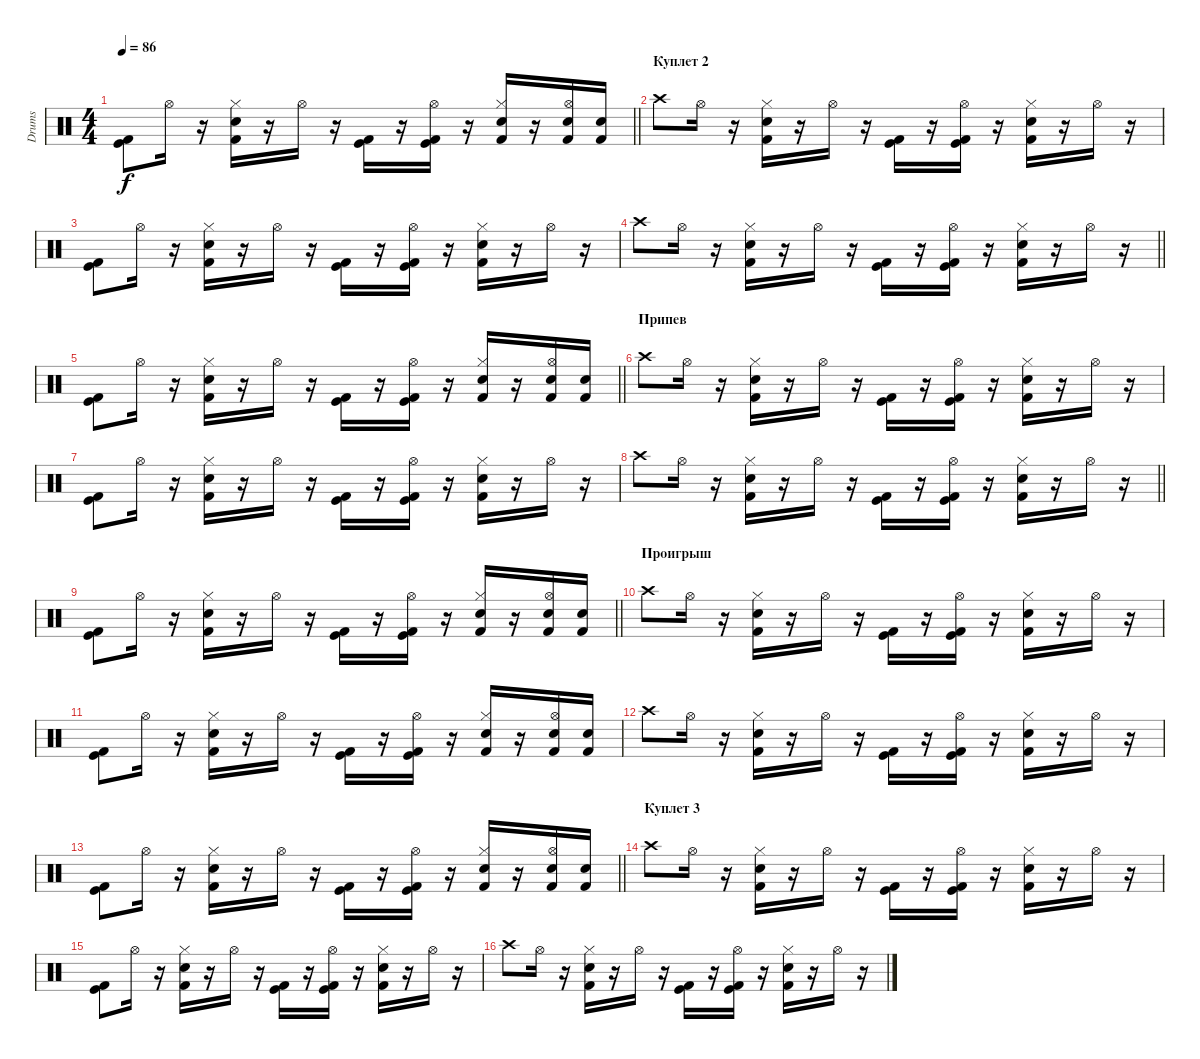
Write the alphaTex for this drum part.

\track ("Drums" "Drums") {instrument percussion}
\staff {score}
\articulation defaults
\ts (4 4)
\tempo 86
\clef neutral
\barLineRight lightlight
\ks c
("Kick (hit) 2" "Kick (hit)").8{dy f} "Hi-Hat (open)".16 r.16 ("Hi-Hat (closed)" "Snare (hit) 2" "Kick (hit) 2").16 r.16 "Hi-Hat (open)".16 r.16 ("Kick (hit) 2" "Kick (hit)").16 r.16 ("Kick (hit) 2" "Kick (hit)" "Hi-Hat (open)").16 r.16 ("Hi-Hat (closed)" "Snare (hit) 2" "Kick (hit) 2").16 r.16 ("Kick (hit) 2" "Electric Snare (hit)" "Hi-Hat (open)").16 ("Kick (hit) 2" "Electric Snare (hit)").16 |
\section ("" "Куплет 2")
"Crash high (hit)".8 "Hi-Hat (open)".16 r.16 ("Hi-Hat (closed)" "Snare (hit) 2" "Kick (hit) 2").16 r.16 "Hi-Hat (open)".16 r.16 ("Kick (hit) 2" "Kick (hit)").16 r.16 ("Kick (hit) 2" "Kick (hit)" "Hi-Hat (open)").16 r.16 ("Hi-Hat (closed)" "Snare (hit) 2" "Kick (hit) 2").16 r.16 "Hi-Hat (open)".16 r.16 |
("Kick (hit)" "Kick (hit) 2").8 "Hi-Hat (open)".16 r.16 ("Hi-Hat (closed)" "Snare (hit) 2" "Kick (hit) 2").16 r.16 "Hi-Hat (open)".16 r.16 ("Kick (hit) 2" "Kick (hit)").16 r.16 ("Kick (hit) 2" "Kick (hit)" "Hi-Hat (open)").16 r.16 ("Hi-Hat (closed)" "Snare (hit) 2" "Kick (hit) 2").16 r.16 "Hi-Hat (open)".16 r.16 |
\barLineRight lightlight "Crash high (hit)".8 "Hi-Hat (open)".16
r.16 ("Hi-Hat (closed)" "Snare (hit) 2" "Kick (hit) 2").16 r.16 "Hi-Hat (open)".16 r.16 ("Kick (hit) 2" "Kick (hit)").16 r.16 ("Kick (hit) 2" "Kick (hit)" "Hi-Hat (open)").16 r.16 ("Hi-Hat (closed)" "Snare (hit) 2" "Kick (hit) 2").16 r.16 "Hi-Hat (open)".16 r.16 |
\barLineRight lightlight
("Kick (hit) 2" "Kick (hit)").8 "Hi-Hat (open)".16 r.16 ("Hi-Hat (closed)" "Snare (hit) 2" "Kick (hit) 2").16 r.16 "Hi-Hat (open)".16 r.16 ("Kick (hit) 2" "Kick (hit)").16 r.16 ("Kick (hit) 2" "Kick (hit)" "Hi-Hat (open)").16 r.16 ("Hi-Hat (closed)" "Snare (hit) 2" "Kick (hit) 2").16 r.16 ("Kick (hit) 2" "Electric Snare (hit)" "Hi-Hat (open)").16 ("Kick (hit) 2" "Electric Snare (hit)").16 |
\section ("" "Припев")
"Crash high (hit)".8 "Hi-Hat (open)".16 r.16 ("Hi-Hat (closed)" "Snare (hit) 2" "Kick (hit) 2").16 r.16 "Hi-Hat (open)".16 r.16 ("Kick (hit) 2" "Kick (hit)").16 r.16 ("Kick (hit) 2" "Kick (hit)" "Hi-Hat (open)").16 r.16 ("Hi-Hat (closed)" "Snare (hit) 2" "Kick (hit) 2").16 r.16 "Hi-Hat (open)".16 r.16 |
("Kick (hit)" "Kick (hit) 2").8 "Hi-Hat (open)".16 r.16 ("Hi-Hat (closed)" "Snare (hit) 2" "Kick (hit) 2").16 r.16 "Hi-Hat (open)".16 r.16 ("Kick (hit) 2" "Kick (hit)").16 r.16 ("Kick (hit) 2" "Kick (hit)" "Hi-Hat (open)").16 r.16 ("Hi-Hat (closed)" "Snare (hit) 2" "Kick (hit) 2").16 r.16 "Hi-Hat (open)".16 r.16 |
\barLineRight lightlight "Crash high (hit)".8 "Hi-Hat (open)".16
r.16 ("Hi-Hat (closed)" "Snare (hit) 2" "Kick (hit) 2").16 r.16 "Hi-Hat (open)".16 r.16 ("Kick (hit) 2" "Kick (hit)").16 r.16 ("Kick (hit) 2" "Kick (hit)" "Hi-Hat (open)").16 r.16 ("Hi-Hat (closed)" "Snare (hit) 2" "Kick (hit) 2").16 r.16 "Hi-Hat (open)".16 r.16 |
\barLineRight lightlight
("Kick (hit) 2" "Kick (hit)").8 "Hi-Hat (open)".16 r.16 ("Hi-Hat (closed)" "Snare (hit) 2" "Kick (hit) 2").16 r.16 "Hi-Hat (open)".16 r.16 ("Kick (hit) 2" "Kick (hit)").16 r.16 ("Kick (hit) 2" "Kick (hit)" "Hi-Hat (open)").16 r.16 ("Hi-Hat (closed)" "Snare (hit) 2" "Kick (hit) 2").16 r.16 ("Kick (hit) 2" "Electric Snare (hit)" "Hi-Hat (open)").16 ("Kick (hit) 2" "Electric Snare (hit)").16 |
\section ("" "Проигрыш")
"Crash high (hit)".8 "Hi-Hat (open)".16 r.16 ("Hi-Hat (closed)" "Snare (hit) 2" "Kick (hit) 2").16 r.16 "Hi-Hat (open)".16 r.16 ("Kick (hit) 2" "Kick (hit)").16 r.16 ("Kick (hit) 2" "Kick (hit)" "Hi-Hat (open)").16 r.16 ("Hi-Hat (closed)" "Snare (hit) 2" "Kick (hit) 2").16 r.16 "Hi-Hat (open)".16 r.16 |
("Kick (hit) 2" "Kick (hit)").8 "Hi-Hat (open)".16 r.16 ("Hi-Hat (closed)" "Snare (hit) 2" "Kick (hit) 2").16 r.16 "Hi-Hat (open)".16 r.16 ("Kick (hit) 2" "Kick (hit)").16 r.16 ("Kick (hit) 2" "Kick (hit)" "Hi-Hat (open)").16 r.16 ("Hi-Hat (closed)" "Snare (hit) 2" "Kick (hit) 2").16 r.16 ("Kick (hit) 2" "Electric Snare (hit)" "Hi-Hat (open)").16 ("Kick (hit) 2" "Electric Snare (hit)").16 |
"Crash high (hit)".8 "Hi-Hat (open)".16 r.16 ("Hi-Hat (closed)" "Snare (hit) 2" "Kick (hit) 2").16 r.16 "Hi-Hat (open)".16 r.16 ("Kick (hit) 2" "Kick (hit)").16 r.16 ("Kick (hit) 2" "Kick (hit)" "Hi-Hat (open)").16 r.16 ("Hi-Hat (closed)" "Snare (hit) 2" "Kick (hit) 2").16 r.16 "Hi-Hat (open)".16 r.16 |
\barLineRight lightlight
("Kick (hit) 2" "Kick (hit)").8 "Hi-Hat (open)".16 r.16 ("Hi-Hat (closed)" "Snare (hit) 2" "Kick (hit) 2").16 r.16 "Hi-Hat (open)".16 r.16 ("Kick (hit) 2" "Kick (hit)").16 r.16 ("Kick (hit) 2" "Kick (hit)" "Hi-Hat (open)").16 r.16 ("Hi-Hat (closed)" "Snare (hit) 2" "Kick (hit) 2").16 r.16 ("Kick (hit) 2" "Electric Snare (hit)" "Hi-Hat (open)").16 ("Kick (hit) 2" "Electric Snare (hit)").16 |
\section ("" "Куплет 3")
"Crash high (hit)".8 "Hi-Hat (open)".16 r.16 ("Hi-Hat (closed)" "Snare (hit) 2" "Kick (hit) 2").16 r.16 "Hi-Hat (open)".16 r.16 ("Kick (hit) 2" "Kick (hit)").16 r.16 ("Kick (hit) 2" "Kick (hit)" "Hi-Hat (open)").16 r.16 ("Hi-Hat (closed)" "Snare (hit) 2" "Kick (hit) 2").16 r.16 "Hi-Hat (open)".16 r.16 |
("Kick (hit) 2" "Kick (hit)").8 "Hi-Hat (open)".16 r.16 ("Hi-Hat (closed)" "Snare (hit) 2" "Kick (hit) 2").16 r.16 "Hi-Hat (open)".16 r.16 ("Kick (hit) 2" "Kick (hit)").16 r.16 ("Kick (hit) 2" "Kick (hit)" "Hi-Hat (open)").16 r.16 ("Hi-Hat (closed)" "Snare (hit) 2" "Kick (hit) 2").16 r.16 "Hi-Hat (open)".16 r.16 |
"Crash high (hit)".8 "Hi-Hat (open)".16 r.16 ("Hi-Hat (closed)" "Snare (hit) 2" "Kick (hit) 2").16 r.16 "Hi-Hat (open)".16 r.16 ("Kick (hit) 2" "Kick (hit)").16 r.16 ("Kick (hit) 2" "Kick (hit)" "Hi-Hat (open)").16 r.16 ("Hi-Hat (closed)" "Snare (hit) 2" "Kick (hit) 2").16 r.16 "Hi-Hat (open)".16 r.16
